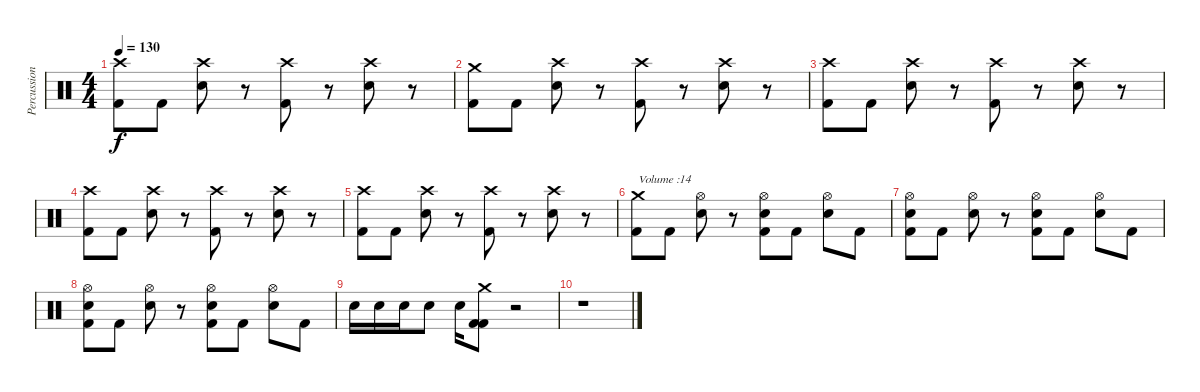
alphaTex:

\track ("Percussions" "Percussion") {instrument percussion}
\staff {score}
\articulation defaults
\ts (4 4)
\tempo 130
\clef neutral
\ks c
("Crash high (hit)" "Kick (hit) 2").8{dy f} "Kick (hit) 2".8 ("Crash high (hit)" "Electric Snare (hit)").8 r.8 ("Crash high (hit)" "Kick (hit) 2").8 r.8 ("Crash high (hit)" "Electric Snare (hit)").8 r.8 |
("Crash medium (hit)" "Kick (hit) 2").8 "Kick (hit) 2".8 ("Crash high (hit)" "Electric Snare (hit)").8 r.8 ("Crash high (hit)" "Kick (hit) 2").8 r.8 ("Crash high (hit)" "Electric Snare (hit)").8 r.8 |
("Crash high (hit)" "Kick (hit) 2").8 "Kick (hit) 2".8 ("Crash high (hit)" "Electric Snare (hit)").8 r.8 ("Crash high (hit)" "Kick (hit) 2").8 r.8 ("Crash high (hit)" "Electric Snare (hit)").8 r.8 |
("Crash high (hit)" "Kick (hit) 2").8 "Kick (hit) 2".8 ("Crash high (hit)" "Electric Snare (hit)").8 r.8 ("Crash high (hit)" "Kick (hit) 2").8 r.8 ("Crash high (hit)" "Electric Snare (hit)").8 r.8 |
("Crash high (hit)" "Kick (hit) 2").8 "Kick (hit) 2".8 ("Crash high (hit)" "Electric Snare (hit)").8 r.8 ("Crash high (hit)" "Kick (hit) 2").8 r.8 ("Crash high (hit)" "Electric Snare (hit)").8 r.8 |
("Crash medium (hit)" "Kick (hit) 2").8{txt "Volume :14" volume 14} "Kick (hit) 2".8 ("Hi-Hat (open)" "Electric Snare (hit)").8 r.8 ("Hi-Hat (open)" "Electric Snare (hit)" "Kick (hit) 2").8 "Kick (hit) 2".8 ("Hi-Hat (open)" "Electric Snare (hit)").8 "Kick (hit) 2".8 |
("Hi-Hat (open)" "Electric Snare (hit)" "Kick (hit) 2").8 "Kick (hit) 2".8 ("Hi-Hat (open)" "Electric Snare (hit)").8 r.8 ("Hi-Hat (open)" "Electric Snare (hit)" "Kick (hit) 2").8 "Kick (hit) 2".8 ("Hi-Hat (open)" "Electric Snare (hit)").8 "Kick (hit) 2".8 |
("Hi-Hat (open)" "Electric Snare (hit)" "Kick (hit) 2").8 "Kick (hit) 2".8 ("Hi-Hat (open)" "Electric Snare (hit)").8 r.8 ("Hi-Hat (open)" "Electric Snare (hit)" "Kick (hit) 2").8 "Kick (hit) 2".8 ("Hi-Hat (open)" "Electric Snare (hit)").8 "Kick (hit) 2".8 |
"Electric Snare (hit)".16 "Electric Snare (hit)".16 "Electric Snare (hit)".16 "Electric Snare (hit)".8 "Electric Snare (hit)".16 ("Crash medium (hit)" "Kick (hit) 2" "Kick (hit) 2").8 r.2 |
r.1
